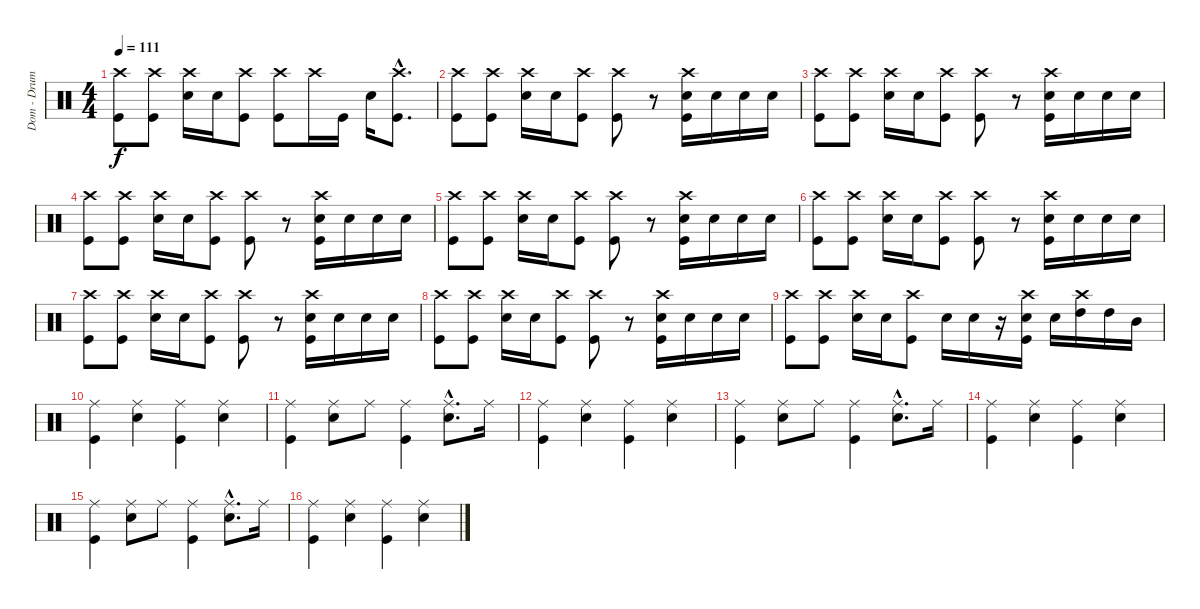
\track ("Dom - Drums" "Dom - Drum") {instrument percussion}
\staff {score}
\articulation defaults
\ts (4 4)
\tempo 111
\clef neutral
\ks c
("Crash high (hit)" "Kick (hit)").8{dy f} ("Crash high (hit)" "Kick (hit)").8 ("Crash high (hit)" "Electric Snare (hit)").16 "Electric Snare (hit)".16 ("Crash high (hit)" "Kick (hit)").8 ("Crash high (hit)" "Kick (hit)").8 "Crash high (hit)".16 "Kick (hit)".16 "Electric Snare (hit)".16 ("Crash high (hit)"{hac} "Kick (hit)"{hac}).8{d} |
("Crash high (hit)" "Kick (hit)").8 ("Crash high (hit)" "Kick (hit)").8 ("Crash high (hit)" "Electric Snare (hit)").16 "Electric Snare (hit)".16 ("Crash high (hit)" "Kick (hit)").8 ("Crash high (hit)" "Kick (hit)").8 r.8 ("Crash high (hit)" "Electric Snare (hit)" "Kick (hit)").16 "Electric Snare (hit)".16 "Electric Snare (hit)".16 "Electric Snare (hit)".16 |
("Crash high (hit)" "Kick (hit)").8 ("Crash high (hit)" "Kick (hit)").8 ("Crash high (hit)" "Electric Snare (hit)").16 "Electric Snare (hit)".16 ("Crash high (hit)" "Kick (hit)").8 ("Crash high (hit)" "Kick (hit)").8 r.8 ("Crash high (hit)" "Electric Snare (hit)" "Kick (hit)").16 "Electric Snare (hit)".16 "Electric Snare (hit)".16 "Electric Snare (hit)".16 |
("Crash high (hit)" "Kick (hit)").8 ("Crash high (hit)" "Kick (hit)").8 ("Crash high (hit)" "Electric Snare (hit)").16 "Electric Snare (hit)".16 ("Crash high (hit)" "Kick (hit)").8 ("Crash high (hit)" "Kick (hit)").8 r.8 ("Crash high (hit)" "Electric Snare (hit)" "Kick (hit)").16 "Electric Snare (hit)".16 "Electric Snare (hit)".16 "Electric Snare (hit)".16 |
("Crash high (hit)" "Kick (hit)").8 ("Crash high (hit)" "Kick (hit)").8 ("Crash high (hit)" "Electric Snare (hit)").16 "Electric Snare (hit)".16 ("Crash high (hit)" "Kick (hit)").8 ("Crash high (hit)" "Kick (hit)").8 r.8 ("Crash high (hit)" "Electric Snare (hit)" "Kick (hit)").16 "Electric Snare (hit)".16 "Electric Snare (hit)".16 "Electric Snare (hit)".16 |
("Crash high (hit)" "Kick (hit)").8 ("Crash high (hit)" "Kick (hit)").8 ("Crash high (hit)" "Electric Snare (hit)").16 "Electric Snare (hit)".16 ("Crash high (hit)" "Kick (hit)").8 ("Crash high (hit)" "Kick (hit)").8 r.8 ("Crash high (hit)" "Electric Snare (hit)" "Kick (hit)").16 "Electric Snare (hit)".16 "Electric Snare (hit)".16 "Electric Snare (hit)".16 |
("Crash high (hit)" "Kick (hit)").8 ("Crash high (hit)" "Kick (hit)").8 ("Crash high (hit)" "Electric Snare (hit)").16 "Electric Snare (hit)".16 ("Crash high (hit)" "Kick (hit)").8 ("Crash high (hit)" "Kick (hit)").8 r.8 ("Crash high (hit)" "Electric Snare (hit)" "Kick (hit)").16 "Electric Snare (hit)".16 "Electric Snare (hit)".16 "Electric Snare (hit)".16 |
("Crash high (hit)" "Kick (hit)").8 ("Crash high (hit)" "Kick (hit)").8 ("Crash high (hit)" "Electric Snare (hit)").16 "Electric Snare (hit)".16 ("Crash high (hit)" "Kick (hit)").8 ("Crash high (hit)" "Kick (hit)").8 r.8 ("Crash high (hit)" "Electric Snare (hit)" "Kick (hit)").16 "Electric Snare (hit)".16 "Electric Snare (hit)".16 "Electric Snare (hit)".16 |
("Crash high (hit)" "Kick (hit)").8 ("Crash high (hit)" "Kick (hit)").8 ("Crash high (hit)" "Electric Snare (hit)").16 "Electric Snare (hit)".16 ("Crash high (hit)" "Kick (hit)").8 "Electric Snare (hit)".16 "Electric Snare (hit)".16 r.16 ("Crash high (hit)" "Electric Snare (hit)" "Kick (hit)").16 "Electric Snare (hit)".16 ("Crash high (hit)" "High Tom (hit)").16 "High Tom (hit)".16 "Mid Tom (hit)".16 |
("Ride (middle)" "Kick (hit)").4 ("Ride (middle)" "Electric Snare (hit)").4 ("Ride (middle)" "Kick (hit)").4 ("Ride (middle)" "Electric Snare (hit)").4 |
("Ride (middle)" "Kick (hit)").4 ("Ride (middle)" "Electric Snare (hit)").8 "Ride (middle)".8 ("Ride (middle)" "Kick (hit)").4 ("Ride (middle)"{hac} "Electric Snare (hit)"{hac}).8{d} "Ride (middle)".16 |
("Ride (middle)" "Kick (hit)").4 ("Ride (middle)" "Electric Snare (hit)").4 ("Ride (middle)" "Kick (hit)").4 ("Ride (middle)" "Electric Snare (hit)").4 |
("Ride (middle)" "Kick (hit)").4 ("Ride (middle)" "Electric Snare (hit)").8 "Ride (middle)".8 ("Ride (middle)" "Kick (hit)").4 ("Ride (middle)"{hac} "Electric Snare (hit)"{hac}).8{d} "Ride (middle)".16 |
("Ride (middle)" "Kick (hit)").4 ("Ride (middle)" "Electric Snare (hit)").4 ("Ride (middle)" "Kick (hit)").4 ("Ride (middle)" "Electric Snare (hit)").4 |
("Ride (middle)" "Kick (hit)").4 ("Ride (middle)" "Electric Snare (hit)").8 "Ride (middle)".8 ("Ride (middle)" "Kick (hit)").4 ("Ride (middle)"{hac} "Electric Snare (hit)"{hac}).8{d} "Ride (middle)".16 |
("Ride (middle)" "Kick (hit)").4 ("Ride (middle)" "Electric Snare (hit)").4 ("Ride (middle)" "Kick (hit)").4 ("Ride (middle)" "Electric Snare (hit)").4
